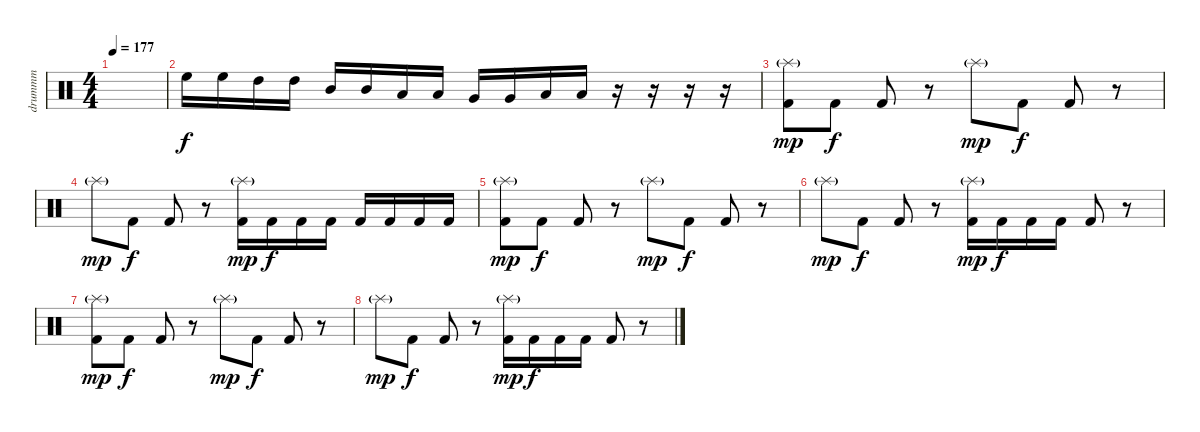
\track ("drummm" "drummm") {instrument percussion}
\staff {score}
\articulation defaults
\ts (4 4)
\tempo 177
\clef neutral
\ks c
|
"High Floor Tom (hit)".16 "High Floor Tom (hit)".16 "High Tom (hit)".16 "High Tom (hit)".16 "Mid Tom (hit)".16 "Mid Tom (hit)".16 "Low Tom (hit)".16 "Low Tom (hit)".16 "Very Low Tom (hit)".16 "Very Low Tom (hit)".16 "Low Floor Tom (hit)".16 "Low Floor Tom (hit)".16 r.16 r.16 r.16 r.16 |
("Splash (hit)"{g} "Kick (hit) 2").8{dy mp} "Kick (hit) 2".8{dy f} "Kick (hit) 2".8 r.8 "Splash (hit)"{g}.8{dy mp} "Kick (hit) 2".8{dy f} "Kick (hit) 2".8 r.8 |
"Splash (hit)"{g}.8{dy mp} "Kick (hit) 2".8{dy f} "Kick (hit) 2".8 r.8 ("Splash (hit)"{g} "Kick (hit) 2").16{dy mp} "Kick (hit) 2".16{dy f} "Kick (hit) 2".16 "Kick (hit) 2".16 "Kick (hit) 2".16 "Kick (hit) 2".16 "Kick (hit) 2".16 "Kick (hit) 2".16 |
("Splash (hit)"{g} "Kick (hit) 2").8{dy mp} "Kick (hit) 2".8{dy f} "Kick (hit) 2".8 r.8 "Splash (hit)"{g}.8{dy mp} "Kick (hit) 2".8{dy f} "Kick (hit) 2".8 r.8 |
"Splash (hit)"{g}.8{dy mp} "Kick (hit) 2".8{dy f} "Kick (hit) 2".8 r.8 ("Splash (hit)"{g} "Kick (hit) 2").16{dy mp} "Kick (hit) 2".16{dy f} "Kick (hit) 2".16 "Kick (hit) 2".16 "Kick (hit) 2".8 r.8 |
("Splash (hit)"{g} "Kick (hit) 2").8{dy mp} "Kick (hit) 2".8{dy f} "Kick (hit) 2".8 r.8 "Splash (hit)"{g}.8{dy mp} "Kick (hit) 2".8{dy f} "Kick (hit) 2".8 r.8 |
"Splash (hit)"{g}.8{dy mp} "Kick (hit) 2".8{dy f} "Kick (hit) 2".8 r.8 ("Splash (hit)"{g} "Kick (hit) 2").16{dy mp} "Kick (hit) 2".16{dy f} "Kick (hit) 2".16 "Kick (hit) 2".16 "Kick (hit) 2".8 r.8
